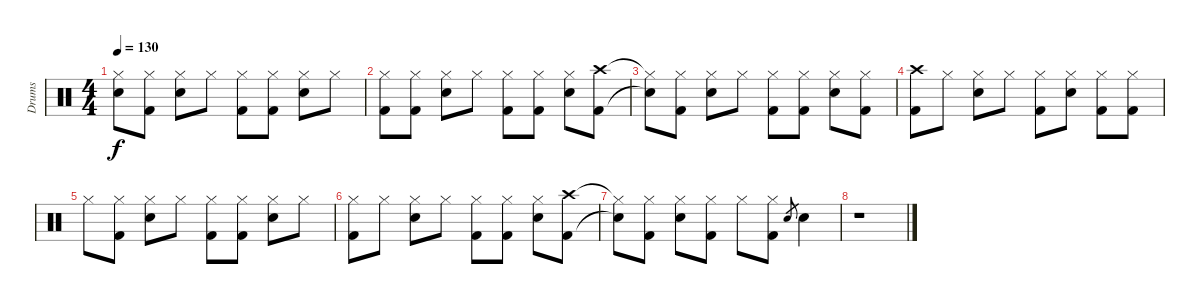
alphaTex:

\track ("Drums" "Drums") {instrument percussion}
\staff {score}
\articulation defaults
\ts (4 4)
\tempo 130
\clef neutral
\ks c
("Hi-Hat (closed)"{t} "Snare (hit)"{t}).8{dy f} ("Hi-Hat (closed)" "Kick (hit) 2").8 ("Hi-Hat (closed)" "Electric Snare (hit)").8 "Hi-Hat (closed)".8 ("Hi-Hat (closed)" "Kick (hit) 2").8 ("Hi-Hat (closed)" "Kick (hit) 2").8 ("Hi-Hat (closed)" "Electric Snare (hit)").8 "Hi-Hat (closed)".8 |
("Hi-Hat (closed)" "Kick (hit) 2").8 ("Hi-Hat (closed)" "Kick (hit) 2").8 ("Hi-Hat (closed)" "Electric Snare (hit)").8 "Hi-Hat (closed)".8 ("Hi-Hat (closed)" "Kick (hit) 2").8 ("Hi-Hat (closed)" "Kick (hit) 2").8 ("Hi-Hat (closed)" "Electric Snare (hit)").8 ("Crash high (hit)" "Kick (hit) 2").8 |
("Hi-Hat (closed)"{t} "Snare (hit)"{t}).8 ("Hi-Hat (closed)" "Kick (hit) 2").8 ("Hi-Hat (closed)" "Electric Snare (hit)").8 "Hi-Hat (closed)".8 ("Hi-Hat (closed)" "Kick (hit) 2").8 ("Hi-Hat (closed)" "Kick (hit) 2").8 ("Hi-Hat (closed)" "Electric Snare (hit)").8 ("Hi-Hat (closed)" "Kick (hit) 2").8 |
("Crash high (hit)" "Kick (hit) 2").8 "Hi-Hat (closed)".8 ("Hi-Hat (closed)" "Electric Snare (hit)").8 "Hi-Hat (closed)".8 ("Hi-Hat (closed)" "Kick (hit) 2").8 ("Hi-Hat (closed)" "Electric Snare (hit)").8 ("Hi-Hat (closed)" "Kick (hit) 2").8 ("Hi-Hat (closed)" "Kick (hit) 2").8 |
"Hi-Hat (closed)".8 ("Hi-Hat (closed)" "Kick (hit) 2").8 ("Hi-Hat (closed)" "Electric Snare (hit)").8 "Hi-Hat (closed)".8 ("Hi-Hat (closed)" "Kick (hit) 2").8 ("Hi-Hat (closed)" "Kick (hit) 2").8 ("Hi-Hat (closed)" "Electric Snare (hit)").8 "Hi-Hat (closed)".8 |
("Hi-Hat (closed)" "Kick (hit) 2").8 "Hi-Hat (closed)".8 ("Hi-Hat (closed)" "Electric Snare (hit)").8 "Hi-Hat (closed)".8 ("Hi-Hat (closed)" "Kick (hit) 2").8 ("Hi-Hat (closed)" "Kick (hit) 2").8 ("Hi-Hat (closed)" "Electric Snare (hit)").8 ("Crash high (hit)" "Kick (hit) 2").8 |
("Hi-Hat (closed)"{t} "Snare (hit)"{t}).8 ("Hi-Hat (closed)" "Kick (hit) 2").8 ("Hi-Hat (closed)" "Electric Snare (hit)").8 ("Hi-Hat (closed)" "Kick (hit) 2").8 "Hi-Hat (closed)".8 ("Hi-Hat (closed)" "Kick (hit) 2").8 "Electric Snare (hit)".8{gr} "Electric Snare (hit)".4 |
r.1
